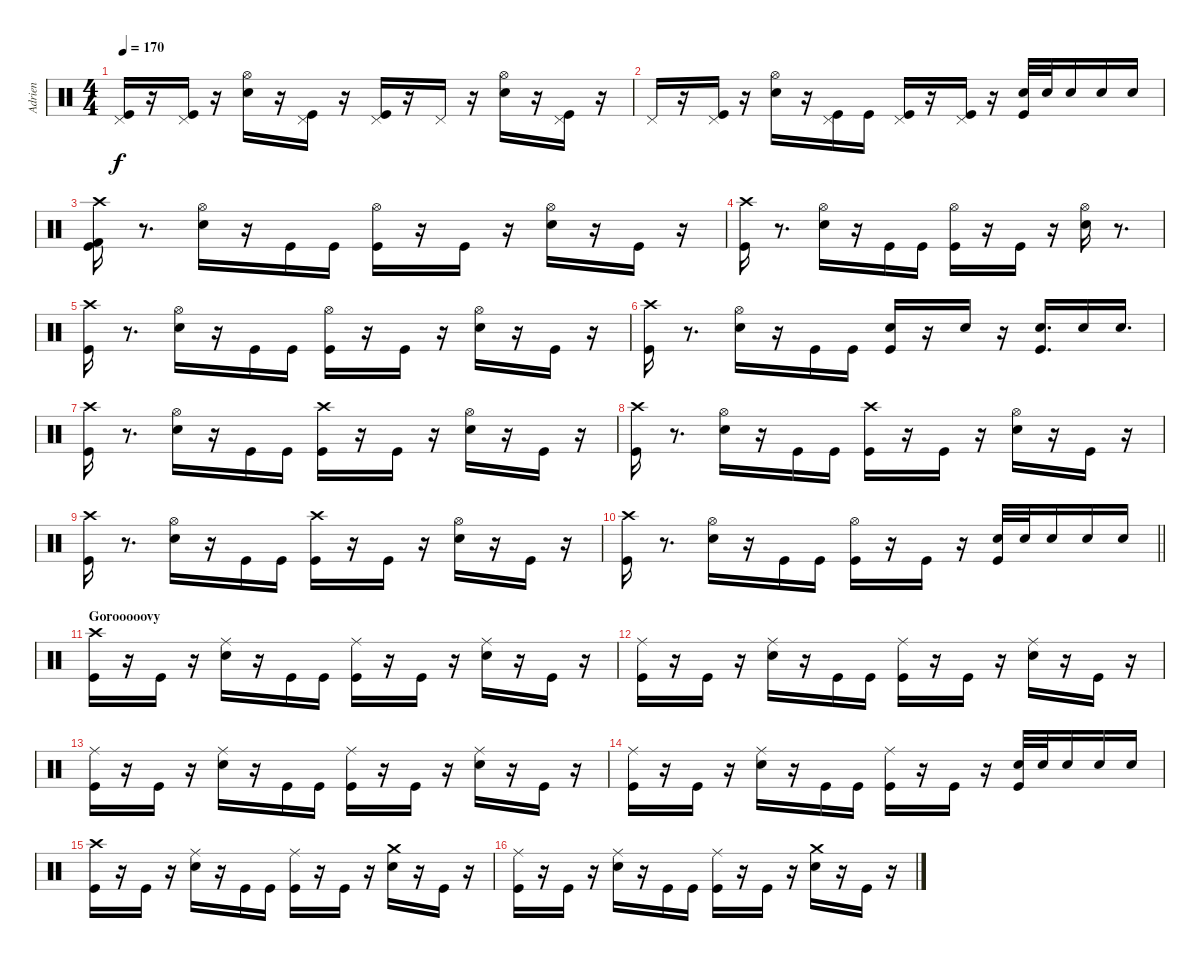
\track ("Adrien" "Adrien") {instrument percussion}
\staff {score}
\articulation defaults
\ts (4 4)
\tempo 170
\clef neutral
\ks c
("Pedal Hi-Hat (hit)" "Kick (hit)").16{dy f} r.16 ("Pedal Hi-Hat (hit)" "Kick (hit)").16 r.16 ("Hi-Hat (open)" "Electric Snare (hit)").16 r.16 ("Pedal Hi-Hat (hit)" "Kick (hit)").16 r.16 ("Pedal Hi-Hat (hit)" "Kick (hit)").16 r.16 "Pedal Hi-Hat (hit)".16 r.16 ("Hi-Hat (open)" "Electric Snare (hit)").16 r.16 ("Pedal Hi-Hat (hit)" "Kick (hit)").16 r.16 |
"Pedal Hi-Hat (hit)".16 r.16 ("Pedal Hi-Hat (hit)" "Kick (hit)").16 r.16 ("Hi-Hat (open)" "Electric Snare (hit)").16 r.16 ("Pedal Hi-Hat (hit)" "Kick (hit)").16 "Kick (hit)".16 ("Pedal Hi-Hat (hit)" "Kick (hit)").16 r.16 ("Pedal Hi-Hat (hit)" "Kick (hit)").16 r.16 ("Kick (hit)" "Electric Snare (hit)").32 "Electric Snare (hit)".32 "Electric Snare (hit)".16 "Electric Snare (hit)".16 "Electric Snare (hit)".16 |
("Kick (hit) 2" "Crash high (hit)" "Kick (hit)").16 r.8{d} ("Hi-Hat (open)" "Electric Snare (hit)").16 r.16 "Kick (hit)".16 "Kick (hit)".16 ("Hi-Hat (open)" "Kick (hit)").16 r.16 "Kick (hit)".16 r.16 ("Hi-Hat (open)" "Electric Snare (hit)").16 r.16 "Kick (hit)".16 r.16 |
("Crash high (hit)" "Kick (hit)").16 r.8{d} ("Hi-Hat (open)" "Electric Snare (hit)").16 r.16 "Kick (hit)".16 "Kick (hit)".16 ("Hi-Hat (open)" "Kick (hit)").16 r.16 "Kick (hit)".16 r.16 ("Hi-Hat (open)" "Electric Snare (hit)").16 r.8{d} |
("Crash high (hit)" "Kick (hit)").16 r.8{d} ("Hi-Hat (open)" "Electric Snare (hit)").16 r.16 "Kick (hit)".16 "Kick (hit)".16 ("Hi-Hat (open)" "Kick (hit)").16 r.16 "Kick (hit)".16 r.16 ("Hi-Hat (open)" "Electric Snare (hit)").16 r.16 "Kick (hit)".16 r.16 |
("Crash high (hit)" "Kick (hit)").16 r.8{d} ("Hi-Hat (open)" "Electric Snare (hit)").16 r.16 "Kick (hit)".16 "Kick (hit)".16 ("Kick (hit)" "Electric Snare (hit)").16 r.16 "Electric Snare (hit)".16 r.16 ("Kick (hit)" "Electric Snare (hit)").16{d} "Electric Snare (hit)".16 "Electric Snare (hit)".16{d} |
("Crash high (hit)" "Kick (hit)").16 r.8{d} ("Hi-Hat (open)" "Electric Snare (hit)").16 r.16 "Kick (hit)".16 "Kick (hit)".16 ("Crash high (hit)" "Kick (hit)").16 r.16 "Kick (hit)".16 r.16 ("Hi-Hat (open)" "Electric Snare (hit)").16 r.16 "Kick (hit)".16 r.16 |
("Crash high (hit)" "Kick (hit)").16 r.8{d} ("Hi-Hat (open)" "Electric Snare (hit)").16 r.16 "Kick (hit)".16 "Kick (hit)".16 ("Crash high (hit)" "Kick (hit)").16 r.16 "Kick (hit)".16 r.16 ("Hi-Hat (open)" "Electric Snare (hit)").16 r.16 "Kick (hit)".16 r.16 |
("Crash high (hit)" "Kick (hit)").16 r.8{d} ("Hi-Hat (open)" "Electric Snare (hit)").16 r.16 "Kick (hit)".16 "Kick (hit)".16 ("Crash high (hit)" "Kick (hit)").16 r.16 "Kick (hit)".16 r.16 ("Hi-Hat (open)" "Electric Snare (hit)").16 r.16 "Kick (hit)".16 r.16 |
\barLineRight lightlight
("Crash high (hit)" "Kick (hit)").16 r.8{d} ("Hi-Hat (open)" "Electric Snare (hit)").16 r.16 "Kick (hit)".16 "Kick (hit)".16 ("Hi-Hat (open)" "Kick (hit)").16 r.16 "Kick (hit)".16 r.16 ("Kick (hit)" "Electric Snare (hit)").32 "Electric Snare (hit)".32 "Electric Snare (hit)".16 "Electric Snare (hit)".16 "Electric Snare (hit)".16 |
\section ("" "Gorooooovy")
("Crash high (hit)" "Kick (hit)").16 r.16 "Kick (hit)".16 r.16 ("Ride (middle)" "Electric Snare (hit)").16 r.16 "Kick (hit)".16 "Kick (hit)".16 ("Ride (middle)" "Kick (hit)").16 r.16 "Kick (hit)".16 r.16 ("Ride (middle)" "Electric Snare (hit)").16 r.16 "Kick (hit)".16 r.16 |
("Ride (middle)" "Kick (hit)").16 r.16 "Kick (hit)".16 r.16 ("Ride (middle)" "Electric Snare (hit)").16 r.16 "Kick (hit)".16 "Kick (hit)".16 ("Ride (middle)" "Kick (hit)").16 r.16 "Kick (hit)".16 r.16 ("Ride (middle)" "Electric Snare (hit)").16 r.16 "Kick (hit)".16 r.16 |
("Ride (middle)" "Kick (hit)").16 r.16 "Kick (hit)".16 r.16 ("Ride (middle)" "Electric Snare (hit)").16 r.16 "Kick (hit)".16 "Kick (hit)".16 ("Ride (middle)" "Kick (hit)").16 r.16 "Kick (hit)".16 r.16 ("Ride (middle)" "Electric Snare (hit)").16 r.16 "Kick (hit)".16 r.16 |
("Ride (middle)" "Kick (hit)").16 r.16 "Kick (hit)".16 r.16 ("Ride (middle)" "Electric Snare (hit)").16 r.16 "Kick (hit)".16 "Kick (hit)".16 ("Ride (middle)" "Kick (hit)").16 r.16 "Kick (hit)".16 r.16 ("Kick (hit)" "Electric Snare (hit)").32 "Electric Snare (hit)".32 "Electric Snare (hit)".16 "Electric Snare (hit)".16 "Electric Snare (hit)".16 |
("Crash high (hit)" "Kick (hit)").16 r.16 "Kick (hit)".16 r.16 ("Ride (middle)" "Electric Snare (hit)").16 r.16 "Kick (hit)".16 "Kick (hit)".16 ("Ride (middle)" "Kick (hit)").16 r.16 "Kick (hit)".16 r.16 ("Crash medium (hit)" "Electric Snare (hit)").16 r.16 "Kick (hit)".16 r.16 |
("Ride (middle)" "Kick (hit)").16 r.16 "Kick (hit)".16 r.16 ("Ride (middle)" "Electric Snare (hit)").16 r.16 "Kick (hit)".16 "Kick (hit)".16 ("Ride (middle)" "Kick (hit)").16 r.16 "Kick (hit)".16 r.16 ("Crash medium (hit)" "Electric Snare (hit)").16 r.16 "Kick (hit)".16 r.16
